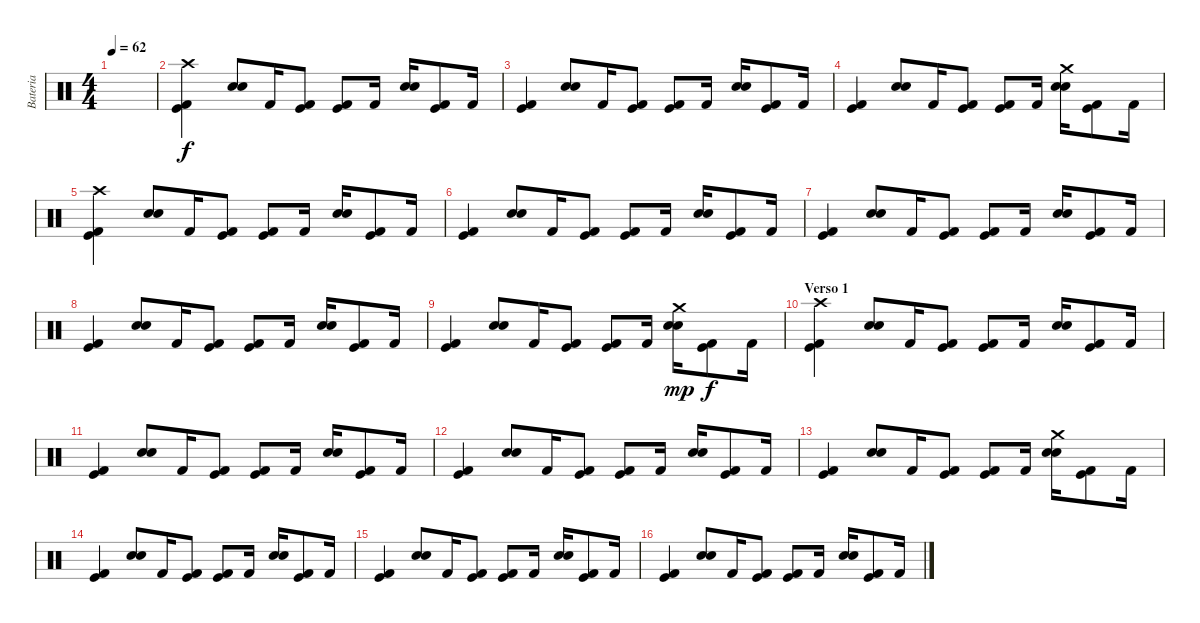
\track ("Bateria" "Bateria") {instrument percussion}
\staff {score}
\articulation defaults
\ts (4 4)
\tempo 62
\clef neutral
\ks c
|
("Crash high (hit)" "Kick (hit)" "Kick (hit) 2").4 ("Snare (hit) 2" "Electric Snare (hit)").8 "Kick (hit) 2".16 ("Kick (hit)" "Kick (hit) 2").8 ("Kick (hit)" "Kick (hit) 2").8 "Kick (hit) 2".16 ("Snare (hit) 2" "Electric Snare (hit)").16 ("Kick (hit)" "Kick (hit) 2").8 "Kick (hit) 2".16 |
("Kick (hit)" "Kick (hit) 2").4 ("Snare (hit) 2" "Electric Snare (hit)").8 "Kick (hit) 2".16 ("Kick (hit)" "Kick (hit) 2").8 ("Kick (hit)" "Kick (hit) 2").8 "Kick (hit) 2".16 ("Snare (hit) 2" "Electric Snare (hit)").16 ("Kick (hit)" "Kick (hit) 2").8 "Kick (hit) 2".16 |
("Kick (hit)" "Kick (hit) 2").4 ("Snare (hit) 2" "Electric Snare (hit)").8 "Kick (hit) 2".16 ("Kick (hit)" "Kick (hit) 2").8 ("Kick (hit)" "Kick (hit) 2").8 "Kick (hit) 2".16 ("Crash medium (hit)" "Snare (hit) 2" "Electric Snare (hit)").16 ("Kick (hit)" "Kick (hit) 2").8 "Kick (hit) 2".16 |
("Crash high (hit)" "Kick (hit)" "Kick (hit) 2").4 ("Snare (hit) 2" "Electric Snare (hit)").8 "Kick (hit) 2".16 ("Kick (hit)" "Kick (hit) 2").8 ("Kick (hit)" "Kick (hit) 2").8 "Kick (hit) 2".16 ("Snare (hit) 2" "Electric Snare (hit)").16 ("Kick (hit)" "Kick (hit) 2").8 "Kick (hit) 2".16 |
("Kick (hit)" "Kick (hit) 2").4 ("Snare (hit) 2" "Electric Snare (hit)").8 "Kick (hit) 2".16 ("Kick (hit)" "Kick (hit) 2").8 ("Kick (hit)" "Kick (hit) 2").8 "Kick (hit) 2".16 ("Snare (hit) 2" "Electric Snare (hit)").16 ("Kick (hit)" "Kick (hit) 2").8 "Kick (hit) 2".16 |
("Kick (hit)" "Kick (hit) 2").4 ("Snare (hit) 2" "Electric Snare (hit)").8 "Kick (hit) 2".16 ("Kick (hit)" "Kick (hit) 2").8 ("Kick (hit)" "Kick (hit) 2").8 "Kick (hit) 2".16 ("Snare (hit) 2" "Electric Snare (hit)").16 ("Kick (hit)" "Kick (hit) 2").8 "Kick (hit) 2".16 |
("Kick (hit)" "Kick (hit) 2").4 ("Snare (hit) 2" "Electric Snare (hit)").8 "Kick (hit) 2".16 ("Kick (hit)" "Kick (hit) 2").8 ("Kick (hit)" "Kick (hit) 2").8 "Kick (hit) 2".16 ("Snare (hit) 2" "Electric Snare (hit)").16 ("Kick (hit)" "Kick (hit) 2").8 "Kick (hit) 2".16 |
("Kick (hit)" "Kick (hit) 2").4 ("Snare (hit) 2" "Electric Snare (hit)").8 "Kick (hit) 2".16 ("Kick (hit)" "Kick (hit) 2").8 ("Kick (hit)" "Kick (hit) 2").8 "Kick (hit) 2".16 ("Crash medium (hit)" "Snare (hit) 2" "Electric Snare (hit)").16{dy mp} ("Kick (hit)" "Kick (hit) 2").8{dy f} "Kick (hit) 2".16 |
\section ("" "Verso 1")
("Crash high (hit)" "Kick (hit)" "Kick (hit) 2").4 ("Snare (hit) 2" "Electric Snare (hit)").8 "Kick (hit) 2".16 ("Kick (hit)" "Kick (hit) 2").8 ("Kick (hit)" "Kick (hit) 2").8 "Kick (hit) 2".16 ("Snare (hit) 2" "Electric Snare (hit)").16 ("Kick (hit)" "Kick (hit) 2").8 "Kick (hit) 2".16 |
("Kick (hit)" "Kick (hit) 2").4 ("Snare (hit) 2" "Electric Snare (hit)").8 "Kick (hit) 2".16 ("Kick (hit)" "Kick (hit) 2").8 ("Kick (hit)" "Kick (hit) 2").8 "Kick (hit) 2".16 ("Snare (hit) 2" "Electric Snare (hit)").16 ("Kick (hit)" "Kick (hit) 2").8 "Kick (hit) 2".16 |
("Kick (hit)" "Kick (hit) 2").4 ("Snare (hit) 2" "Electric Snare (hit)").8 "Kick (hit) 2".16 ("Kick (hit)" "Kick (hit) 2").8 ("Kick (hit)" "Kick (hit) 2").8 "Kick (hit) 2".16 ("Snare (hit) 2" "Electric Snare (hit)").16 ("Kick (hit)" "Kick (hit) 2").8 "Kick (hit) 2".16 |
("Kick (hit)" "Kick (hit) 2").4 ("Snare (hit) 2" "Electric Snare (hit)").8 "Kick (hit) 2".16 ("Kick (hit)" "Kick (hit) 2").8 ("Kick (hit)" "Kick (hit) 2").8 "Kick (hit) 2".16 ("Crash medium (hit)" "Snare (hit) 2" "Electric Snare (hit)").16 ("Kick (hit)" "Kick (hit) 2").8 "Kick (hit) 2".16 |
("Kick (hit)" "Kick (hit) 2").4 ("Snare (hit) 2" "Electric Snare (hit)").8 "Kick (hit) 2".16 ("Kick (hit)" "Kick (hit) 2").8 ("Kick (hit)" "Kick (hit) 2").8 "Kick (hit) 2".16 ("Snare (hit) 2" "Electric Snare (hit)").16 ("Kick (hit)" "Kick (hit) 2").8 "Kick (hit) 2".16 |
("Kick (hit)" "Kick (hit) 2").4 ("Snare (hit) 2" "Electric Snare (hit)").8 "Kick (hit) 2".16 ("Kick (hit)" "Kick (hit) 2").8 ("Kick (hit)" "Kick (hit) 2").8 "Kick (hit) 2".16 ("Snare (hit) 2" "Electric Snare (hit)").16 ("Kick (hit)" "Kick (hit) 2").8 "Kick (hit) 2".16 |
("Kick (hit)" "Kick (hit) 2").4 ("Snare (hit) 2" "Electric Snare (hit)").8 "Kick (hit) 2".16 ("Kick (hit)" "Kick (hit) 2").8 ("Kick (hit)" "Kick (hit) 2").8 "Kick (hit) 2".16 ("Snare (hit) 2" "Electric Snare (hit)").16 ("Kick (hit)" "Kick (hit) 2").8 "Kick (hit) 2".16
